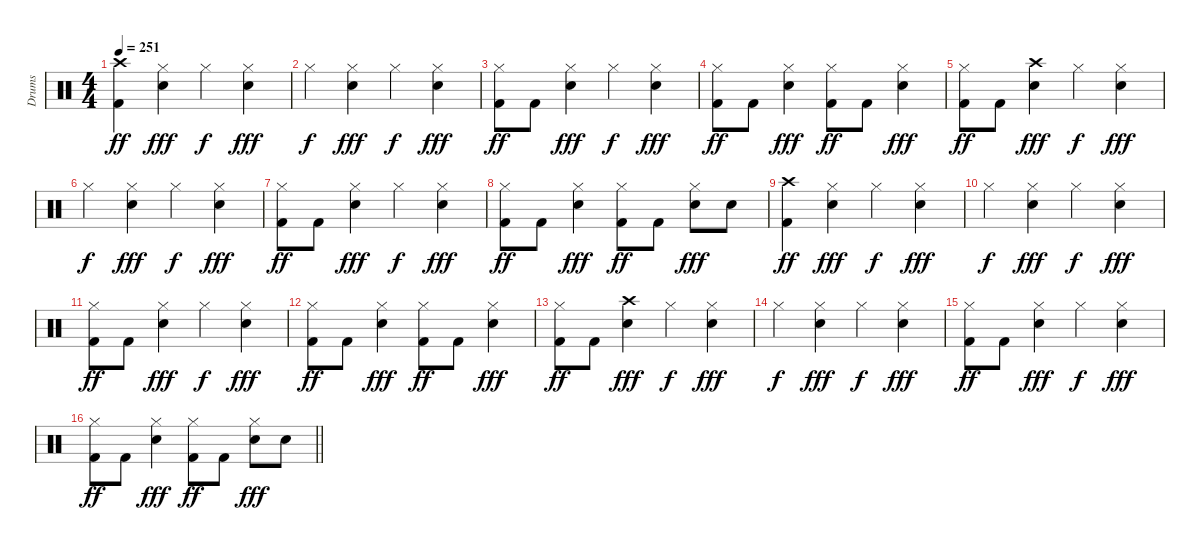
\track ("Drums" "Drums") {instrument percussion}
\staff {score}
\articulation defaults
\ts (4 4)
\tempo 251
\clef neutral
\ks c
("Crash high (hit)" "Kick (hit) 2").4{dy ff} ("Hi-Hat (closed)" "Electric Snare (hit)").4{dy fff} "Hi-Hat (closed)".4{dy f} ("Hi-Hat (closed)" "Electric Snare (hit)").4{dy fff} |
"Hi-Hat (closed)".4{dy f} ("Hi-Hat (closed)" "Electric Snare (hit)").4{dy fff} "Hi-Hat (closed)".4{dy f} ("Hi-Hat (closed)" "Electric Snare (hit)").4{dy fff} |
("Hi-Hat (closed)" "Kick (hit) 2").8{dy ff} "Kick (hit) 2".8 ("Hi-Hat (closed)" "Electric Snare (hit)").4{dy fff} "Hi-Hat (closed)".4{dy f} ("Hi-Hat (closed)" "Electric Snare (hit)").4{dy fff} |
("Hi-Hat (closed)" "Kick (hit) 2").8{dy ff} "Kick (hit) 2".8 ("Hi-Hat (closed)" "Electric Snare (hit)").4{dy fff} ("Hi-Hat (closed)" "Kick (hit) 2").8{dy ff} "Kick (hit) 2".8 ("Hi-Hat (closed)" "Electric Snare (hit)").4{dy fff} |
("Hi-Hat (closed)" "Kick (hit) 2").8{dy ff} "Kick (hit) 2".8 ("Crash high (hit)" "Electric Snare (hit)").4{dy fff} "Hi-Hat (closed)".4{dy f} ("Hi-Hat (closed)" "Electric Snare (hit)").4{dy fff} |
"Hi-Hat (closed)".4{dy f} ("Hi-Hat (closed)" "Electric Snare (hit)").4{dy fff} "Hi-Hat (closed)".4{dy f} ("Hi-Hat (closed)" "Electric Snare (hit)").4{dy fff} |
("Hi-Hat (closed)" "Kick (hit) 2").8{dy ff} "Kick (hit) 2".8 ("Hi-Hat (closed)" "Electric Snare (hit)").4{dy fff} "Hi-Hat (closed)".4{dy f} ("Hi-Hat (closed)" "Electric Snare (hit)").4{dy fff} |
("Hi-Hat (closed)" "Kick (hit) 2").8{dy ff} "Kick (hit) 2".8 ("Hi-Hat (closed)" "Electric Snare (hit)").4{dy fff} ("Hi-Hat (closed)" "Kick (hit) 2").8{dy ff} "Kick (hit) 2".8 ("Hi-Hat (closed)" "Electric Snare (hit)").8{dy fff} "Electric Snare (hit)".8 |
("Crash high (hit)" "Kick (hit) 2").4{dy ff} ("Hi-Hat (closed)" "Electric Snare (hit)").4{dy fff} "Hi-Hat (closed)".4{dy f} ("Hi-Hat (closed)" "Electric Snare (hit)").4{dy fff} |
"Hi-Hat (closed)".4{dy f} ("Hi-Hat (closed)" "Electric Snare (hit)").4{dy fff} "Hi-Hat (closed)".4{dy f} ("Hi-Hat (closed)" "Electric Snare (hit)").4{dy fff} |
("Hi-Hat (closed)" "Kick (hit) 2").8{dy ff} "Kick (hit) 2".8 ("Hi-Hat (closed)" "Electric Snare (hit)").4{dy fff} "Hi-Hat (closed)".4{dy f} ("Hi-Hat (closed)" "Electric Snare (hit)").4{dy fff} |
("Hi-Hat (closed)" "Kick (hit) 2").8{dy ff} "Kick (hit) 2".8 ("Hi-Hat (closed)" "Electric Snare (hit)").4{dy fff} ("Hi-Hat (closed)" "Kick (hit) 2").8{dy ff} "Kick (hit) 2".8 ("Hi-Hat (closed)" "Electric Snare (hit)").4{dy fff} |
("Hi-Hat (closed)" "Kick (hit) 2").8{dy ff} "Kick (hit) 2".8 ("Crash high (hit)" "Electric Snare (hit)").4{dy fff} "Hi-Hat (closed)".4{dy f} ("Hi-Hat (closed)" "Electric Snare (hit)").4{dy fff} |
"Hi-Hat (closed)".4{dy f} ("Hi-Hat (closed)" "Electric Snare (hit)").4{dy fff} "Hi-Hat (closed)".4{dy f} ("Hi-Hat (closed)" "Electric Snare (hit)").4{dy fff} |
("Hi-Hat (closed)" "Kick (hit) 2").8{dy ff} "Kick (hit) 2".8 ("Hi-Hat (closed)" "Electric Snare (hit)").4{dy fff} "Hi-Hat (closed)".4{dy f} ("Hi-Hat (closed)" "Electric Snare (hit)").4{dy fff} |
\barLineRight lightlight
("Hi-Hat (closed)" "Kick (hit) 2").8{dy ff} "Kick (hit) 2".8 ("Hi-Hat (closed)" "Electric Snare (hit)").4{dy fff} ("Hi-Hat (closed)" "Kick (hit) 2").8{dy ff} "Kick (hit) 2".8 ("Hi-Hat (closed)" "Electric Snare (hit)").8{dy fff} "Electric Snare (hit)".8
